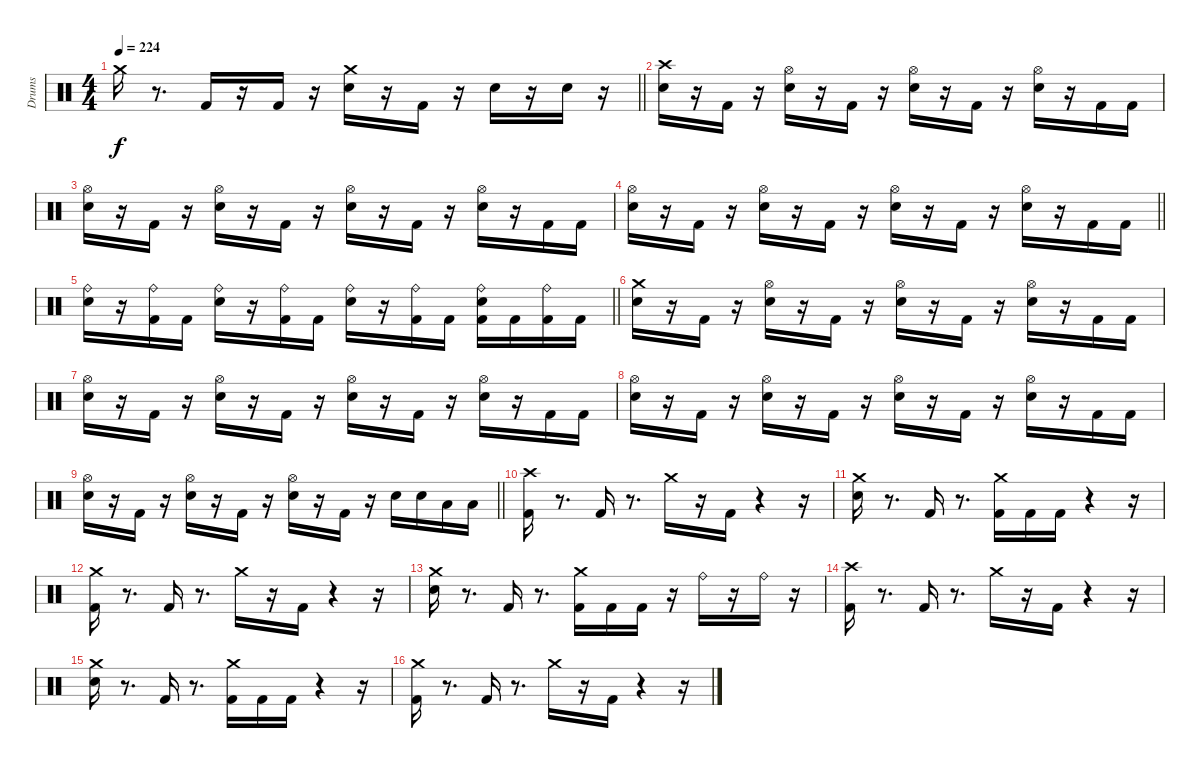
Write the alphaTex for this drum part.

\track ("Drums" "Drums") {instrument percussion}
\staff {score}
\articulation defaults
\ts (4 4)
\tempo 224
\clef neutral
\barLineRight lightlight
\ks c "Crash medium (hit)".16{dy f}
r.8{d} "Kick (hit) 2".16 r.16 "Kick (hit) 2".16 r.16 ("Snare (hit) 2" "Crash medium (hit)").16 r.16 "Kick (hit) 2".16 r.16 "Snare (hit) 2".16 r.16 "Snare (hit) 2".16 r.16 |
\section ("" " ")
("Snare (hit) 2" "Crash high (hit)").16 r.16 "Kick (hit) 2".16 r.16 ("Snare (hit) 2" "Hi-Hat (open)").16 r.16 "Kick (hit) 2".16 r.16 ("Snare (hit) 2" "Hi-Hat (open)").16 r.16 "Kick (hit) 2".16 r.16 ("Snare (hit) 2" "Hi-Hat (open)").16 r.16 "Kick (hit) 2".16 "Kick (hit) 2".16 |
("Snare (hit) 2" "Hi-Hat (open)").16 r.16 "Kick (hit) 2".16 r.16 ("Snare (hit) 2" "Hi-Hat (open)").16 r.16 "Kick (hit) 2".16 r.16 ("Snare (hit) 2" "Hi-Hat (open)").16 r.16 "Kick (hit) 2".16 r.16 ("Snare (hit) 2" "Hi-Hat (open)").16 r.16 "Kick (hit) 2".16 "Kick (hit) 2".16 |
\barLineRight lightlight
("Snare (hit) 2" "Hi-Hat (open)").16 r.16 "Kick (hit) 2".16 r.16 ("Snare (hit) 2" "Hi-Hat (open)").16 r.16 "Kick (hit) 2".16 r.16 ("Snare (hit) 2" "Hi-Hat (open)").16 r.16 "Kick (hit) 2".16 r.16 ("Snare (hit) 2" "Hi-Hat (open)").16 r.16 "Kick (hit) 2".16 "Kick (hit) 2".16 |
\barLineRight lightlight
("Snare (hit) 2" "Ride (bell)").16 r.16 ("Kick (hit) 2" "Ride (bell)").16 "Kick (hit) 2".16 ("Snare (hit) 2" "Ride (bell)").16 r.16 ("Kick (hit) 2" "Ride (bell)").16 "Kick (hit) 2".16 ("Snare (hit) 2" "Ride (bell)").16 r.16 ("Kick (hit) 2" "Ride (bell)").16 "Kick (hit) 2".16 ("Kick (hit) 2" "Snare (hit) 2" "Ride (bell)").16 "Kick (hit) 2".16 ("Kick (hit) 2" "Ride (bell)").16 "Kick (hit) 2".16 |
("Snare (hit) 2" "Crash medium (hit)").16 r.16 "Kick (hit) 2".16 r.16 ("Snare (hit) 2" "Hi-Hat (open)").16 r.16 "Kick (hit) 2".16 r.16 ("Snare (hit) 2" "Hi-Hat (open)").16 r.16 "Kick (hit) 2".16 r.16 ("Snare (hit) 2" "Hi-Hat (open)").16 r.16 "Kick (hit) 2".16 "Kick (hit) 2".16 |
("Snare (hit) 2" "Hi-Hat (open)").16 r.16 "Kick (hit) 2".16 r.16 ("Snare (hit) 2" "Hi-Hat (open)").16 r.16 "Kick (hit) 2".16 r.16 ("Snare (hit) 2" "Hi-Hat (open)").16 r.16 "Kick (hit) 2".16 r.16 ("Snare (hit) 2" "Hi-Hat (open)").16 r.16 "Kick (hit) 2".16 "Kick (hit) 2".16 |
("Snare (hit) 2" "Hi-Hat (open)").16 r.16 "Kick (hit) 2".16 r.16 ("Snare (hit) 2" "Hi-Hat (open)").16 r.16 "Kick (hit) 2".16 r.16 ("Snare (hit) 2" "Hi-Hat (open)").16 r.16 "Kick (hit) 2".16 r.16 ("Snare (hit) 2" "Hi-Hat (open)").16 r.16 "Kick (hit) 2".16 "Kick (hit) 2".16 |
\barLineRight lightlight
("Snare (hit) 2" "Hi-Hat (open)").16 r.16 "Kick (hit) 2".16 r.16 ("Snare (hit) 2" "Hi-Hat (open)").16 r.16 "Kick (hit) 2".16 r.16 ("Snare (hit) 2" "Hi-Hat (open)").16 r.16 "Kick (hit) 2".16 r.16 "Snare (hit) 2".16 "Snare (hit) 2".16 "Low Tom (hit)".16 "Low Tom (hit)".16 |
\section ("" " ")
("Kick (hit) 2" "Crash high (hit)").16 r.8{d} "Kick (hit) 2".16 r.8{d} "Crash medium (hit)".16 r.16 "Kick (hit) 2".16 r.4 r.16 |
("Snare (hit) 2" "Crash medium (hit)").16 r.8{d} "Kick (hit) 2".16 r.8{d} ("Kick (hit) 2" "Crash medium (hit)").16 "Kick (hit) 2".16 "Kick (hit) 2".16 r.4 r.16 |
("Kick (hit) 2" "Crash medium (hit)").16 r.8{d} "Kick (hit) 2".16 r.8{d} "Crash medium (hit)".16 r.16 "Kick (hit) 2".16 r.4 r.16 |
("Snare (hit) 2" "Crash medium (hit)").16 r.8{d} "Kick (hit) 2".16 r.8{d} ("Kick (hit) 2" "Crash medium (hit)").16 "Kick (hit) 2".16 "Kick (hit) 2".16 r.16 "Ride (bell)".16 r.16 "Ride (bell)".16 r.16 |
("Kick (hit) 2" "Crash high (hit)").16 r.8{d} "Kick (hit) 2".16 r.8{d} "Crash medium (hit)".16 r.16 "Kick (hit) 2".16 r.4 r.16 |
("Snare (hit) 2" "Crash medium (hit)").16 r.8{d} "Kick (hit) 2".16 r.8{d} ("Kick (hit) 2" "Crash medium (hit)").16 "Kick (hit) 2".16 "Kick (hit) 2".16 r.4 r.16 |
("Kick (hit) 2" "Crash medium (hit)").16 r.8{d} "Kick (hit) 2".16 r.8{d} "Crash medium (hit)".16 r.16 "Kick (hit) 2".16 r.4 r.16
